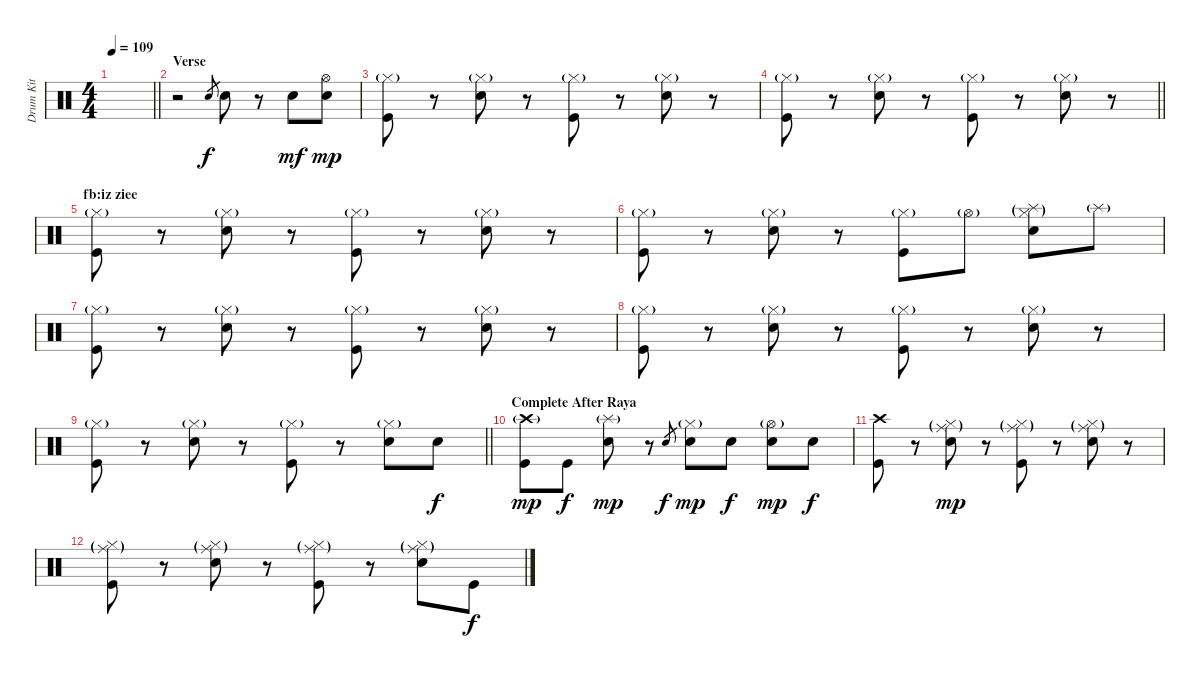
\track ("Drum Kit" "Drum Kit") {instrument percussion}
\staff {score}
\articulation defaults
\ts (4 4)
\tempo 109
\clef neutral
\barLineRight lightlight
\ks c
|
\section ("" "Verse")
r.2 "Electric Snare (hit)".8{gr} "Electric Snare (hit)".8 r.8 "Electric Snare (hit)".8{dy mf} ("Electric Snare (hit)" "Hi-Hat (open)").8{dy mp} |
("Kick (hit)" "Hi-Hat (closed)"{g}).8 r.8 ("Electric Snare (hit)" "Hi-Hat (closed)"{g}).8 r.8 ("Kick (hit)" "Hi-Hat (closed)"{g}).8 r.8 ("Electric Snare (hit)" "Hi-Hat (closed)"{g}).8 r.8 |
\barLineRight lightlight
("Kick (hit)" "Hi-Hat (closed)"{g}).8 r.8 ("Electric Snare (hit)" "Hi-Hat (closed)"{g}).8 r.8 ("Kick (hit)" "Hi-Hat (closed)"{g}).8 r.8 ("Electric Snare (hit)" "Hi-Hat (closed)"{g}).8 r.8 |
\section ("" "fb:iz ziee")
("Kick (hit)" "Hi-Hat (closed)"{g}).8 r.8 ("Electric Snare (hit)" "Hi-Hat (closed)"{g}).8 r.8 ("Kick (hit)" "Hi-Hat (closed)"{g}).8 r.8 ("Electric Snare (hit)" "Hi-Hat (closed)"{g}).8 r.8 |
("Kick (hit)" "Hi-Hat (closed)"{g}).8 r.8 ("Electric Snare (hit)" "Hi-Hat (closed)"{g}).8 r.8 ("Kick (hit)" "Hi-Hat (closed)"{g}).8 "Hi-Hat (open)"{g}.8 ("Electric Snare (hit)" "Hi-Hat (closed)"{g} "Splash (hit)"{g}).8 "Splash (hit)"{g}.8 |
("Kick (hit)" "Hi-Hat (closed)"{g}).8 r.8 ("Electric Snare (hit)" "Hi-Hat (closed)"{g}).8 r.8 ("Kick (hit)" "Hi-Hat (closed)"{g}).8 r.8 ("Electric Snare (hit)" "Hi-Hat (closed)"{g}).8 r.8 |
("Kick (hit)" "Hi-Hat (closed)"{g}).8 r.8 ("Electric Snare (hit)" "Hi-Hat (closed)"{g}).8 r.8 ("Kick (hit)" "Hi-Hat (closed)"{g}).8 r.8 ("Electric Snare (hit)" "Hi-Hat (closed)"{g}).8 r.8 |
\barLineRight lightlight
("Kick (hit)" "Hi-Hat (closed)"{g}).8 r.8 ("Electric Snare (hit)" "Hi-Hat (closed)"{g}).8 r.8 ("Kick (hit)" "Hi-Hat (closed)"{g}).8 r.8 ("Electric Snare (hit)" "Hi-Hat (closed)"{g}).8 "Electric Snare (hit)".8{dy f} |
\section ("" "Complete After Raya")
("Kick (hit)" "Crash high (hit)"{g}).8{dy mp} "Kick (hit)".8{dy f} ("Electric Snare (hit)" "Splash (hit)"{g}).8{dy mp} r.8 "Electric Snare (hit)".8{gr dy f} ("Electric Snare (hit)" "Hi-Hat (closed)"{g}).8{dy mp} "Electric Snare (hit)".8{dy f} ("Electric Snare (hit)" "Hi-Hat (open)"{g}).8{dy mp} "Electric Snare (hit)".8{dy f} |
("Kick (hit)" "Crash high (hit)").8 r.8 ("Hi-Hat (closed)"{g} "Electric Snare (hit)" "Ride (middle)"{g}).8{dy mp} r.8 ("Hi-Hat (closed)"{g} "Kick (hit)" "Ride (middle)"{g}).8 r.8 ("Hi-Hat (closed)"{g} "Electric Snare (hit)" "Ride (middle)"{g}).8 r.8 |
("Hi-Hat (closed)"{g} "Kick (hit)" "Ride (middle)"{g}).8 r.8 ("Electric Snare (hit)" "Ride (middle)"{g} "Hi-Hat (closed)"{g}).8 r.8 ("Hi-Hat (closed)"{g} "Kick (hit)" "Ride (middle)"{g}).8 r.8 ("Electric Snare (hit)" "Ride (middle)"{g} "Hi-Hat (closed)"{g}).8 "Kick (hit)".8{dy f}
